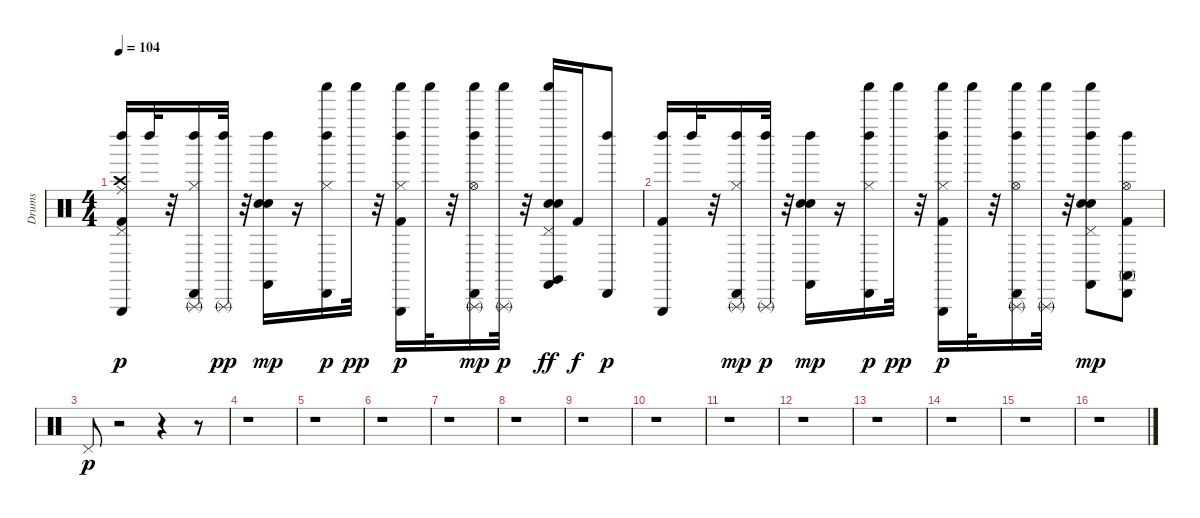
\track ("Drums" "Drums") {instrument percussion}
\staff {score}
\articulation defaults
\ts (4 4)
\tempo 104
\clef neutral
\ks c
("Triangle (hit)" "Left Maraca (hit)" "Kick (hit) 2" "Ride (middle)" "Crash high (hit)" "Pedal Hi-Hat (hit)").16{dy p} "Left Maraca (hit)".32 r.32 ("Hi-Hat (closed)" "Cabasa (hit)" "Triangle (rnute)" "Left Maraca (hit)").16 ("Left Maraca (hit)" "Triangle (rnute)").32{dy pp} r.32 ("Hand Clap (hit)" "Left Maraca (hit)" "Castanets (hit)" "Electric Snare (hit)").16{dy mp} r.16 ("Cabasa (hit)" "Left Maraca (hit)" "Hi-Hat (closed)" "Shaker (hit)").16{dy p} "Shaker (hit)".32{dy pp} r.32 ("Triangle (hit)" "Kick (hit) 2" "Shaker (hit)" "Left Maraca (hit)" "Hi-Hat (closed)").16{dy p} "Shaker (hit)".32 r.32 ("Shaker (hit)" "Left Maraca (hit)" "Hi-Hat (open)" "Triangle (rnute)" "Cabasa (hit)").16{dy mp} ("Triangle (rnute)" "Shaker (hit)").32{dy p} r.32 ("Electric Snare (hit)" "Pedal Hi-Hat (hit)" "Castanets (hit)" "Hand Clap (hit)" "Shaker (hit)" "Claves (hit)").16{dy ff} "Kick (hit) 2".16{dy f} ("Cabasa (hit)" "Left Maraca (hit)").8{dy p} |
("Triangle (hit)" "Left Maraca (hit)" "Kick (hit) 2").16 "Left Maraca (hit)".32 r.32 ("Left Maraca (hit)" "Hi-Hat (closed)" "Triangle (rnute)" "Cabasa (hit)").16{dy mp} ("Triangle (rnute)" "Left Maraca (hit)").32{dy p} r.32 ("Left Maraca (hit)" "Castanets (hit)" "Hand Clap (hit)" "Electric Snare (hit)").16{dy mp} r.16 ("Shaker (hit)" "Cabasa (hit)" "Left Maraca (hit)" "Hi-Hat (closed)").16{dy p} "Shaker (hit)".32{dy pp} r.32 ("Hi-Hat (closed)" "Triangle (hit)" "Kick (hit) 2" "Shaker (hit)" "Left Maraca (hit)").16{dy p} "Shaker (hit)".32 r.32 ("Triangle (rnute)" "Shaker (hit)" "Cabasa (hit)" "Left Maraca (hit)" "Hi-Hat (open)").16 ("Triangle (rnute)" "Shaker (hit)").32 r.32 ("Hand Clap (hit)" "Pedal Hi-Hat (hit)" "Left Maraca (hit)" "Shaker (hit)" "Castanets (hit)" "Electric Snare (hit)").8{dy mp} ("Hi-Hat (open)" "Left Maraca (hit)" "Conga high (mute)" "Kick (hit) 2" "Cabasa (hit)").8 |
"Pedal Hi-Hat (hit)".8{dy p} r.2 r.4 r.8 |
r.1 |
r.1 |
r.1 |
r.1 |
r.1 |
r.1 |
r.1 |
r.1 |
r.1 |
r.1 |
r.1 |
r.1 |
r.1
